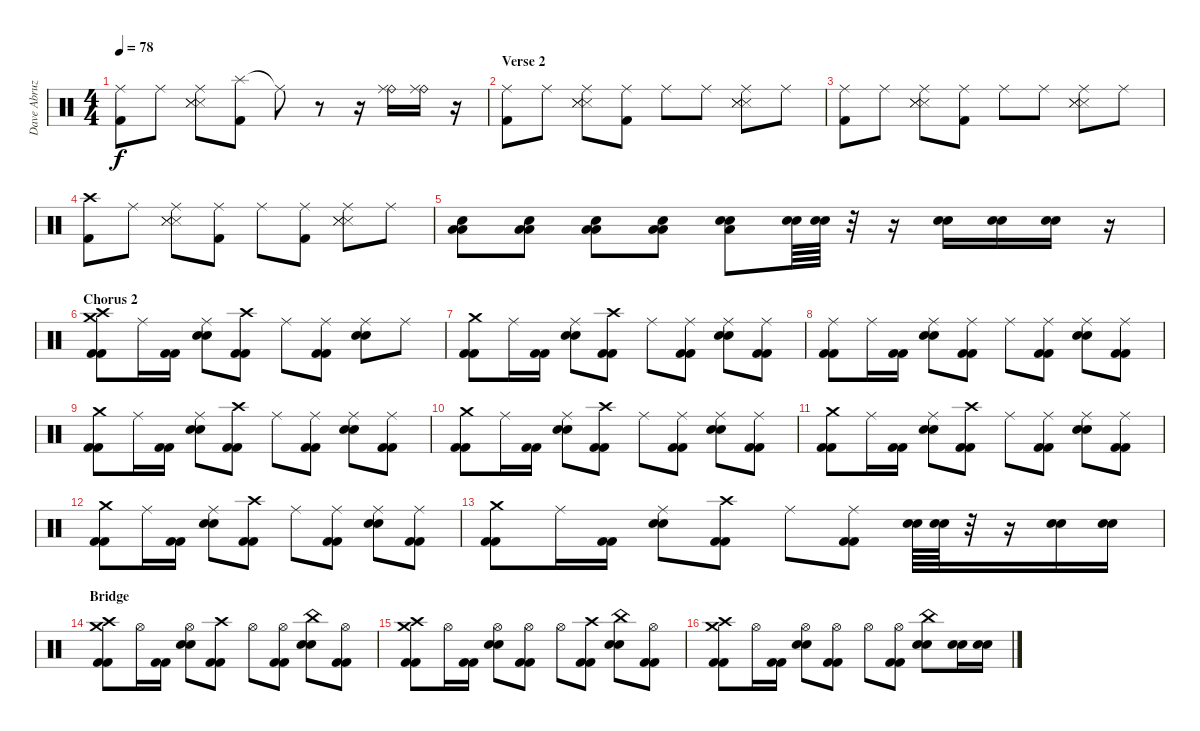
\track ("Dave Abruzzese (live)" "Dave Abruz") {instrument percussion}
\staff {score}
\articulation defaults
\ts (4 4)
\tempo 78
\clef neutral
\ks c
("Ride (middle)" "Kick (hit) 2").8{dy f} "Ride (middle)".8 ("Ride (middle)" "Snare (side stick) 3" "Snare (side stick) 3" "Snare (side stick) 3").8 ("Splash (hit)" "Kick (hit) 2").8 "Ride (middle)"{t}.8 r.8 r.16 ("Ride (bell)" "Ride (middle)").16 ("Ride (bell)" "Ride (middle)").16 r.16 |
\section ("" "Verse 2")
("Ride (middle)" "Kick (hit) 2").8 "Ride (middle)".8 ("Ride (middle)" "Snare (side stick) 3" "Snare (side stick) 3" "Snare (side stick) 3").8 ("Ride (middle)" "Kick (hit) 2").8 "Ride (middle)".8 "Ride (middle)".8 ("Ride (middle)" "Snare (side stick) 3" "Snare (side stick) 3" "Snare (side stick) 3").8 "Ride (middle)".8 |
("Ride (middle)" "Kick (hit) 2").8 "Ride (middle)".8 ("Ride (middle)" "Snare (side stick) 3" "Snare (side stick) 3" "Snare (side stick) 3").8 ("Ride (middle)" "Kick (hit) 2").8 "Ride (middle)".8 "Ride (middle)".8 ("Ride (middle)" "Snare (side stick) 3" "Snare (side stick) 3" "Snare (side stick) 3").8 "Ride (middle)".8 |
("Crash high (hit)" "Kick (hit) 2").8 "Ride (middle)".8 ("Ride (middle)" "Snare (side stick) 3" "Snare (side stick) 3" "Snare (side stick) 3").8 ("Ride (middle)" "Kick (hit) 2").8 "Ride (middle)".8 ("Ride (middle)" "Kick (hit) 2").8 ("Ride (middle)" "Snare (side stick) 3" "Snare (side stick) 3" "Snare (side stick) 3").8 "Ride (middle)".8 |
("Low Tom (hit)" "Low Tom (hit)" "Electric Snare (hit)").8 ("Low Tom (hit)" "Low Tom (hit)" "Electric Snare (hit)").8 ("Low Tom (hit)" "Low Tom (hit)" "Electric Snare (hit)").8 ("Low Tom (hit)" "Low Tom (hit)" "Electric Snare (hit)").8 ("Low Tom (hit)" "Electric Snare (hit)" "Electric Snare (hit)").8 ("Electric Snare (hit)" "Electric Snare (hit)").64 ("Electric Snare (hit)" "Electric Snare (hit)").64 r.32 r.16 ("Electric Snare (hit)" "Electric Snare (hit)").16 ("Electric Snare (hit)" "Electric Snare (hit)").16 ("Electric Snare (hit)" "Electric Snare (hit)").16 r.16 |
\section ("" "Chorus 2")
("Crash medium (hit)" "Crash high (hit)" "Kick (hit) 2" "Kick (hit) 2").8 "Ride (middle)".16 ("Kick (hit) 2" "Kick (hit) 2").16 ("Ride (middle)" "Electric Snare (hit)" "Electric Snare (hit)").8 ("Crash high (hit)" "Kick (hit) 2" "Kick (hit) 2").8 "Ride (middle)".8 ("Ride (middle)" "Kick (hit) 2" "Kick (hit) 2").8 ("Ride (middle)" "Electric Snare (hit)" "Electric Snare (hit)").8 "Ride (middle)".8 |
("Crash medium (hit)" "Kick (hit) 2" "Kick (hit) 2").8 "Ride (middle)".16 ("Kick (hit) 2" "Kick (hit) 2").16 ("Ride (middle)" "Electric Snare (hit)" "Electric Snare (hit)").8 ("Crash high (hit)" "Kick (hit) 2" "Kick (hit) 2").8 "Ride (middle)".8 ("Ride (middle)" "Kick (hit) 2" "Kick (hit) 2").8 ("Ride (middle)" "Electric Snare (hit)" "Electric Snare (hit)").8 ("Ride (middle)" "Kick (hit) 2" "Kick (hit) 2").8 |
("Ride (middle)" "Kick (hit) 2" "Kick (hit) 2").8 "Ride (middle)".16 ("Kick (hit) 2" "Kick (hit) 2").16 ("Ride (middle)" "Electric Snare (hit)" "Electric Snare (hit)").8 ("Ride (middle)" "Kick (hit) 2" "Kick (hit) 2").8 "Ride (middle)".8 ("Ride (middle)" "Kick (hit) 2" "Kick (hit) 2").8 ("Ride (middle)" "Electric Snare (hit)" "Electric Snare (hit)").8 ("Ride (middle)" "Kick (hit) 2" "Kick (hit) 2").8 |
("Crash medium (hit)" "Kick (hit) 2" "Kick (hit) 2").8 "Ride (middle)".16 ("Kick (hit) 2" "Kick (hit) 2").16 ("Ride (middle)" "Electric Snare (hit)" "Electric Snare (hit)").8 ("Crash high (hit)" "Kick (hit) 2" "Kick (hit) 2").8 "Ride (middle)".8 ("Ride (middle)" "Kick (hit) 2" "Kick (hit) 2").8 ("Ride (middle)" "Electric Snare (hit)" "Electric Snare (hit)").8 ("Ride (middle)" "Kick (hit) 2" "Kick (hit) 2").8 |
("Crash medium (hit)" "Kick (hit) 2" "Kick (hit) 2").8 "Ride (middle)".16 ("Kick (hit) 2" "Kick (hit) 2").16 ("Ride (middle)" "Electric Snare (hit)" "Electric Snare (hit)").8 ("Crash high (hit)" "Kick (hit) 2" "Kick (hit) 2").8 "Ride (middle)".8 ("Ride (middle)" "Kick (hit) 2" "Kick (hit) 2").8 ("Ride (middle)" "Electric Snare (hit)" "Electric Snare (hit)").8 ("Ride (middle)" "Kick (hit) 2" "Kick (hit) 2").8 |
("Crash medium (hit)" "Kick (hit) 2" "Kick (hit) 2").8 "Ride (middle)".16 ("Kick (hit) 2" "Kick (hit) 2").16 ("Ride (middle)" "Electric Snare (hit)" "Electric Snare (hit)").8 ("Crash high (hit)" "Kick (hit) 2" "Kick (hit) 2").8 "Ride (middle)".8 ("Ride (middle)" "Kick (hit) 2" "Kick (hit) 2").8 ("Ride (middle)" "Electric Snare (hit)" "Electric Snare (hit)").8 ("Ride (middle)" "Kick (hit) 2" "Kick (hit) 2").8 |
("Crash medium (hit)" "Kick (hit) 2" "Kick (hit) 2").8 "Ride (middle)".16 ("Kick (hit) 2" "Kick (hit) 2").16 ("Ride (middle)" "Electric Snare (hit)" "Electric Snare (hit)").8 ("Crash high (hit)" "Kick (hit) 2" "Kick (hit) 2").8 "Ride (middle)".8 ("Ride (middle)" "Kick (hit) 2" "Kick (hit) 2").8 ("Ride (middle)" "Electric Snare (hit)" "Electric Snare (hit)").8 ("Ride (middle)" "Kick (hit) 2" "Kick (hit) 2").8 |
("Crash medium (hit)" "Kick (hit) 2" "Kick (hit) 2").8 "Ride (middle)".16 ("Kick (hit) 2" "Kick (hit) 2").16 ("Ride (middle)" "Electric Snare (hit)" "Electric Snare (hit)").8 ("Crash high (hit)" "Kick (hit) 2" "Kick (hit) 2").8 "Ride (middle)".8 ("Ride (middle)" "Kick (hit) 2" "Kick (hit) 2").8 ("Electric Snare (hit)" "Electric Snare (hit)").64 ("Electric Snare (hit)" "Electric Snare (hit)").64 r.32 r.16 ("Electric Snare (hit)" "Electric Snare (hit)").16 ("Electric Snare (hit)" "Electric Snare (hit)").16 |
\section ("" "Bridge")
("Crash medium (hit)" "Crash high (hit)" "Kick (hit) 2" "Kick (hit) 2").8 "Hi-Hat (open)".16 ("Kick (hit) 2" "Kick (hit) 2").16 ("Hi-Hat (open)" "Electric Snare (hit)" "Electric Snare (hit)").8 ("Crash high (hit)" "Kick (hit) 2" "Kick (hit) 2").8 "Hi-Hat (open)".8 ("Hi-Hat (open)" "Kick (hit) 2" "Kick (hit) 2").8 ("China (hit)" "Electric Snare (hit)" "Electric Snare (hit)").8 ("Hi-Hat (open)" "Kick (hit) 2" "Kick (hit) 2").8 |
("Crash medium (hit)" "Crash high (hit)" "Kick (hit) 2" "Kick (hit) 2").8 "Hi-Hat (open)".16 ("Kick (hit) 2" "Kick (hit) 2").16 ("Hi-Hat (open)" "Electric Snare (hit)" "Electric Snare (hit)").8 ("Hi-Hat (open)" "Kick (hit) 2" "Kick (hit) 2").8 "Hi-Hat (open)".8 ("Crash high (hit)" "Kick (hit) 2" "Kick (hit) 2").8 ("China (hit)" "Electric Snare (hit)" "Electric Snare (hit)").8 ("Hi-Hat (open)" "Kick (hit) 2" "Kick (hit) 2").8 |
("Crash medium (hit)" "Crash high (hit)" "Kick (hit) 2" "Kick (hit) 2").8 "Hi-Hat (open)".16 ("Kick (hit) 2" "Kick (hit) 2").16 ("Hi-Hat (open)" "Electric Snare (hit)" "Electric Snare (hit)").8 ("Hi-Hat (open)" "Kick (hit) 2" "Kick (hit) 2").8 "Hi-Hat (open)".8 ("Hi-Hat (open)" "Kick (hit) 2" "Kick (hit) 2").8 ("China (hit)" "Electric Snare (hit)" "Electric Snare (hit)").8 ("Electric Snare (hit)" "Electric Snare (hit)").16 ("Electric Snare (hit)" "Electric Snare (hit)").16
